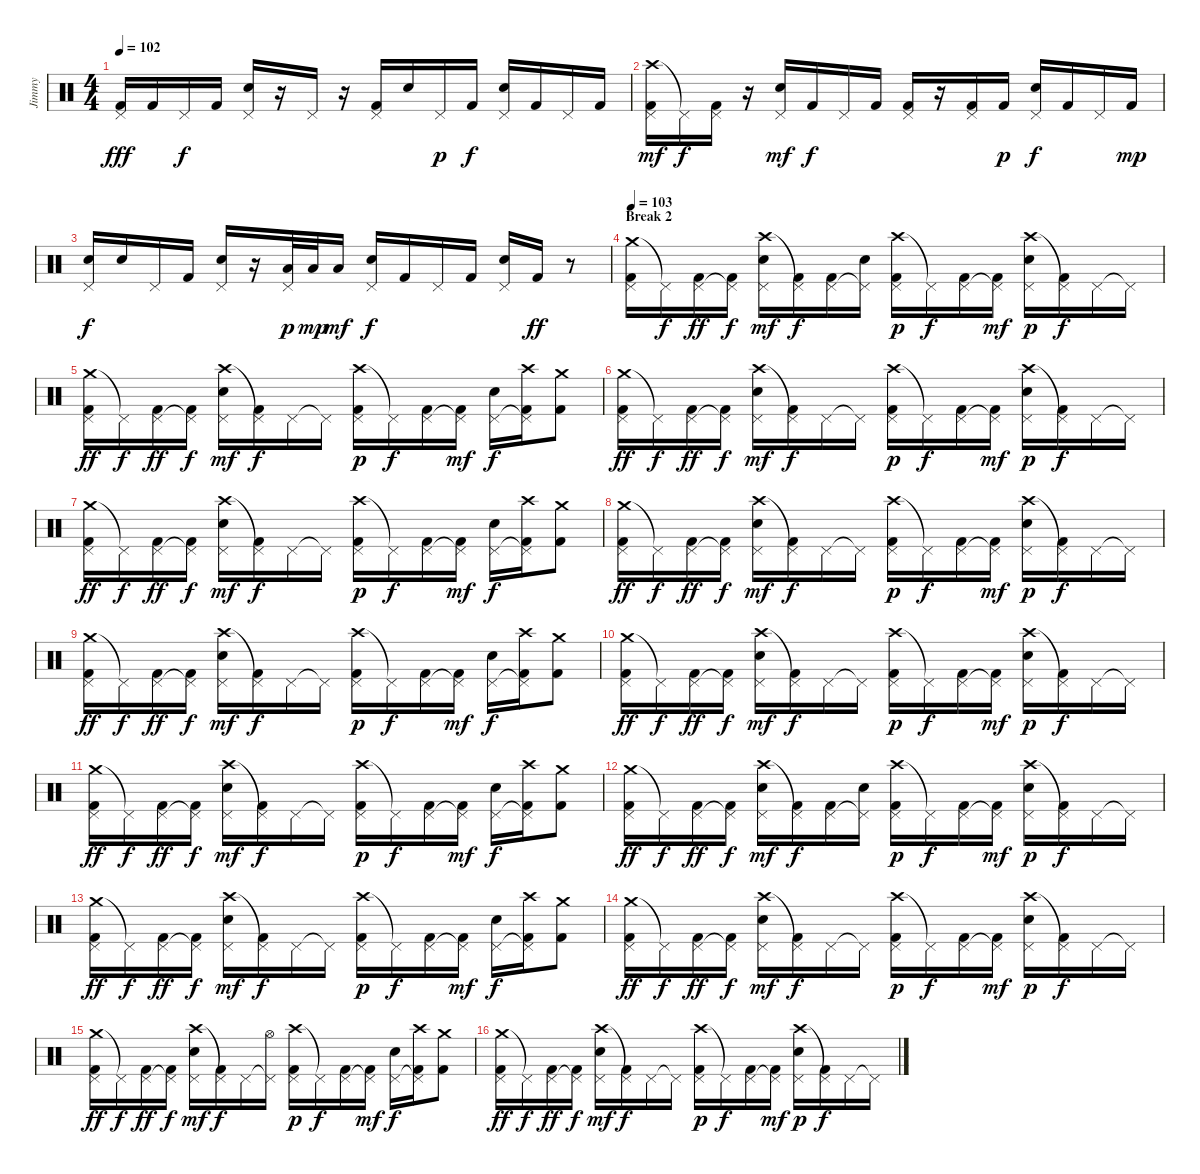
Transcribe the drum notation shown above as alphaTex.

\track ("Jimmy" "Jimmy") {instrument percussion}
\staff {score}
\articulation defaults
\ts (4 4)
\tempo 102
\clef neutral
\ks c
("Pedal Hi-Hat (hit)" "Kick (hit) 2").16{dy fff} "Kick (hit) 2".16 "Pedal Hi-Hat (hit)".16{dy f} "Kick (hit) 2".16 ("Pedal Hi-Hat (hit)" "Electric Snare (hit)").16 r.16 "Pedal Hi-Hat (hit)".16 r.16 ("Pedal Hi-Hat (hit)" "Kick (hit) 2").16 "Electric Snare (hit)".16 "Pedal Hi-Hat (hit)".16{dy p} "Kick (hit) 2".16{dy f} ("Pedal Hi-Hat (hit)" "Electric Snare (hit)").16 "Kick (hit) 2".16 "Pedal Hi-Hat (hit)".16 "Kick (hit) 2".16 |
("Crash high (hit)" "Pedal Hi-Hat (hit)" "Kick (hit) 2").16{dy mf} "Pedal Hi-Hat (hit)"{t}.16{dy f} ("Pedal Hi-Hat (hit)" "Kick (hit) 2").16 r.16 ("Pedal Hi-Hat (hit)" "Electric Snare (hit)").16{dy mf} "Kick (hit) 2".16{dy f} "Pedal Hi-Hat (hit)".16 "Kick (hit) 2".16 ("Pedal Hi-Hat (hit)" "Kick (hit) 2").16 r.16 ("Pedal Hi-Hat (hit)" "Kick (hit) 2").16 "Kick (hit) 2".16{dy p} ("Pedal Hi-Hat (hit)" "Electric Snare (hit)").16{dy f} "Kick (hit) 2".16 "Pedal Hi-Hat (hit)".16 "Kick (hit) 2".16{dy mp} |
("Pedal Hi-Hat (hit)" "Electric Snare (hit)").16{dy f} "Electric Snare (hit)".16 "Pedal Hi-Hat (hit)".16 "Kick (hit) 2".16 ("Pedal Hi-Hat (hit)" "Electric Snare (hit)").16 r.16 ("Pedal Hi-Hat (hit)" "Low Tom (hit)").32{dy p} "Low Tom (hit)".32{dy mp} "Low Tom (hit)".16{dy mf} ("Pedal Hi-Hat (hit)" "Electric Snare (hit)").16{dy f} "Kick (hit) 2".16 "Pedal Hi-Hat (hit)".16 "Kick (hit) 2".16 ("Pedal Hi-Hat (hit)" "Electric Snare (hit)").16 "Kick (hit) 2".16{dy ff} r.8 |
\section ("" "Break 2")
\tempo 103
("Crash medium (hit)" "Pedal Hi-Hat (hit)" "Kick (hit) 2").16{volume 16} "Pedal Hi-Hat (hit)"{t}.16{dy f} ("Pedal Hi-Hat (hit)" "Kick (hit) 2").16{dy ff} ("Pedal Hi-Hat (hit)"{t} "Kick (hit) 2").16{dy f} ("Crash high (hit)" "Pedal Hi-Hat (hit)" "Electric Snare (hit)").16{dy mf} ("Pedal Hi-Hat (hit)"{t} "Kick (hit) 2").16{dy f} ("Pedal Hi-Hat (hit)" "Kick (hit) 2").16 ("Pedal Hi-Hat (hit)"{t} "Electric Snare (hit)").16 ("Crash high (hit)" "Pedal Hi-Hat (hit)" "Kick (hit) 2").16{dy p} "Pedal Hi-Hat (hit)"{t}.16{dy f} ("Pedal Hi-Hat (hit)" "Kick (hit) 2").16 ("Pedal Hi-Hat (hit)"{t} "Kick (hit) 2").16{dy mf} ("Crash high (hit)" "Pedal Hi-Hat (hit)" "Electric Snare (hit)").16{dy p} ("Pedal Hi-Hat (hit)"{t} "Kick (hit) 2").16{dy f} "Pedal Hi-Hat (hit)".16 "Pedal Hi-Hat (hit)"{t}.16 |
("Crash medium (hit)" "Pedal Hi-Hat (hit)" "Kick (hit) 2").16{dy ff} "Pedal Hi-Hat (hit)"{t}.16{dy f} ("Pedal Hi-Hat (hit)" "Kick (hit) 2").16{dy ff} ("Pedal Hi-Hat (hit)"{t} "Kick (hit) 2").16{dy f} ("Crash high (hit)" "Pedal Hi-Hat (hit)" "Electric Snare (hit)").16{dy mf} ("Pedal Hi-Hat (hit)"{t} "Kick (hit) 2").16{dy f} "Pedal Hi-Hat (hit)".16 "Pedal Hi-Hat (hit)"{t}.16 ("Crash high (hit)" "Pedal Hi-Hat (hit)" "Kick (hit) 2").16{dy p} "Pedal Hi-Hat (hit)"{t}.16{dy f} ("Pedal Hi-Hat (hit)" "Kick (hit) 2").16 ("Pedal Hi-Hat (hit)"{t} "Kick (hit) 2").16{dy mf} ("Pedal Hi-Hat (hit)" "Electric Snare (hit)").16{dy f} ("Pedal Hi-Hat (hit)"{t} "Crash high (hit)" "Kick (hit) 2").16 ("Crash medium (hit)" "Kick (hit) 2").8 |
("Crash medium (hit)" "Pedal Hi-Hat (hit)" "Kick (hit) 2").16{dy ff} "Pedal Hi-Hat (hit)"{t}.16{dy f} ("Pedal Hi-Hat (hit)" "Kick (hit) 2").16{dy ff} ("Pedal Hi-Hat (hit)"{t} "Kick (hit) 2").16{dy f} ("Crash high (hit)" "Pedal Hi-Hat (hit)" "Electric Snare (hit)").16{dy mf} ("Pedal Hi-Hat (hit)"{t} "Kick (hit) 2").16{dy f} "Pedal Hi-Hat (hit)".16 "Pedal Hi-Hat (hit)"{t}.16 ("Crash high (hit)" "Pedal Hi-Hat (hit)" "Kick (hit) 2").16{dy p} "Pedal Hi-Hat (hit)"{t}.16{dy f} ("Pedal Hi-Hat (hit)" "Kick (hit) 2").16 ("Pedal Hi-Hat (hit)"{t} "Kick (hit) 2").16{dy mf} ("Crash high (hit)" "Pedal Hi-Hat (hit)" "Electric Snare (hit)").16{dy p} ("Pedal Hi-Hat (hit)"{t} "Kick (hit) 2").16{dy f} "Pedal Hi-Hat (hit)".16 "Pedal Hi-Hat (hit)"{t}.16 |
("Crash medium (hit)" "Pedal Hi-Hat (hit)" "Kick (hit) 2").16{dy ff} "Pedal Hi-Hat (hit)"{t}.16{dy f} ("Pedal Hi-Hat (hit)" "Kick (hit) 2").16{dy ff} ("Pedal Hi-Hat (hit)"{t} "Kick (hit) 2").16{dy f} ("Crash high (hit)" "Pedal Hi-Hat (hit)" "Electric Snare (hit)").16{dy mf} ("Pedal Hi-Hat (hit)"{t} "Kick (hit) 2").16{dy f} "Pedal Hi-Hat (hit)".16 "Pedal Hi-Hat (hit)"{t}.16 ("Crash high (hit)" "Pedal Hi-Hat (hit)" "Kick (hit) 2").16{dy p} "Pedal Hi-Hat (hit)"{t}.16{dy f} ("Pedal Hi-Hat (hit)" "Kick (hit) 2").16 ("Pedal Hi-Hat (hit)"{t} "Kick (hit) 2").16{dy mf} ("Pedal Hi-Hat (hit)" "Electric Snare (hit)").16{dy f} ("Pedal Hi-Hat (hit)"{t} "Crash high (hit)" "Kick (hit) 2").16 ("Crash medium (hit)" "Kick (hit) 2").8 |
("Crash medium (hit)" "Pedal Hi-Hat (hit)" "Kick (hit) 2").16{dy ff} "Pedal Hi-Hat (hit)"{t}.16{dy f} ("Pedal Hi-Hat (hit)" "Kick (hit) 2").16{dy ff} ("Pedal Hi-Hat (hit)"{t} "Kick (hit) 2").16{dy f} ("Crash high (hit)" "Pedal Hi-Hat (hit)" "Electric Snare (hit)").16{dy mf} ("Pedal Hi-Hat (hit)"{t} "Kick (hit) 2").16{dy f} "Pedal Hi-Hat (hit)".16 "Pedal Hi-Hat (hit)"{t}.16 ("Crash high (hit)" "Pedal Hi-Hat (hit)" "Kick (hit) 2").16{dy p} "Pedal Hi-Hat (hit)"{t}.16{dy f} ("Pedal Hi-Hat (hit)" "Kick (hit) 2").16 ("Pedal Hi-Hat (hit)"{t} "Kick (hit) 2").16{dy mf} ("Crash high (hit)" "Pedal Hi-Hat (hit)" "Electric Snare (hit)").16{dy p} ("Pedal Hi-Hat (hit)"{t} "Kick (hit) 2").16{dy f} "Pedal Hi-Hat (hit)".16 "Pedal Hi-Hat (hit)"{t}.16 |
("Crash medium (hit)" "Pedal Hi-Hat (hit)" "Kick (hit) 2").16{dy ff} "Pedal Hi-Hat (hit)"{t}.16{dy f} ("Pedal Hi-Hat (hit)" "Kick (hit) 2").16{dy ff} ("Pedal Hi-Hat (hit)"{t} "Kick (hit) 2").16{dy f} ("Crash high (hit)" "Pedal Hi-Hat (hit)" "Electric Snare (hit)").16{dy mf} ("Pedal Hi-Hat (hit)"{t} "Kick (hit) 2").16{dy f} "Pedal Hi-Hat (hit)".16 "Pedal Hi-Hat (hit)"{t}.16 ("Crash high (hit)" "Pedal Hi-Hat (hit)" "Kick (hit) 2").16{dy p} "Pedal Hi-Hat (hit)"{t}.16{dy f} ("Pedal Hi-Hat (hit)" "Kick (hit) 2").16 ("Pedal Hi-Hat (hit)"{t} "Kick (hit) 2").16{dy mf} ("Pedal Hi-Hat (hit)" "Electric Snare (hit)").16{dy f} ("Pedal Hi-Hat (hit)"{t} "Crash high (hit)" "Kick (hit) 2").16 ("Crash medium (hit)" "Kick (hit) 2").8 |
("Crash medium (hit)" "Pedal Hi-Hat (hit)" "Kick (hit) 2").16{dy ff} "Pedal Hi-Hat (hit)"{t}.16{dy f} ("Pedal Hi-Hat (hit)" "Kick (hit) 2").16{dy ff} ("Pedal Hi-Hat (hit)"{t} "Kick (hit) 2").16{dy f} ("Crash high (hit)" "Pedal Hi-Hat (hit)" "Electric Snare (hit)").16{dy mf} ("Pedal Hi-Hat (hit)"{t} "Kick (hit) 2").16{dy f} "Pedal Hi-Hat (hit)".16 "Pedal Hi-Hat (hit)"{t}.16 ("Crash high (hit)" "Pedal Hi-Hat (hit)" "Kick (hit) 2").16{dy p} "Pedal Hi-Hat (hit)"{t}.16{dy f} ("Pedal Hi-Hat (hit)" "Kick (hit) 2").16 ("Pedal Hi-Hat (hit)"{t} "Kick (hit) 2").16{dy mf} ("Crash high (hit)" "Pedal Hi-Hat (hit)" "Electric Snare (hit)").16{dy p} ("Pedal Hi-Hat (hit)"{t} "Kick (hit) 2").16{dy f} "Pedal Hi-Hat (hit)".16 "Pedal Hi-Hat (hit)"{t}.16 |
("Crash medium (hit)" "Pedal Hi-Hat (hit)" "Kick (hit) 2").16{dy ff} "Pedal Hi-Hat (hit)"{t}.16{dy f} ("Pedal Hi-Hat (hit)" "Kick (hit) 2").16{dy ff} ("Pedal Hi-Hat (hit)"{t} "Kick (hit) 2").16{dy f} ("Crash high (hit)" "Pedal Hi-Hat (hit)" "Electric Snare (hit)").16{dy mf} ("Pedal Hi-Hat (hit)"{t} "Kick (hit) 2").16{dy f} "Pedal Hi-Hat (hit)".16 "Pedal Hi-Hat (hit)"{t}.16 ("Crash high (hit)" "Pedal Hi-Hat (hit)" "Kick (hit) 2").16{dy p} "Pedal Hi-Hat (hit)"{t}.16{dy f} ("Pedal Hi-Hat (hit)" "Kick (hit) 2").16 ("Pedal Hi-Hat (hit)"{t} "Kick (hit) 2").16{dy mf} ("Pedal Hi-Hat (hit)" "Electric Snare (hit)").16{dy f} ("Pedal Hi-Hat (hit)"{t} "Crash high (hit)" "Kick (hit) 2").16 ("Crash medium (hit)" "Kick (hit) 2").8 |
("Crash medium (hit)" "Pedal Hi-Hat (hit)" "Kick (hit) 2").16{dy ff} "Pedal Hi-Hat (hit)"{t}.16{dy f} ("Pedal Hi-Hat (hit)" "Kick (hit) 2").16{dy ff} ("Pedal Hi-Hat (hit)"{t} "Kick (hit) 2").16{dy f} ("Crash high (hit)" "Pedal Hi-Hat (hit)" "Electric Snare (hit)").16{dy mf} ("Pedal Hi-Hat (hit)"{t} "Kick (hit) 2").16{dy f} ("Pedal Hi-Hat (hit)" "Kick (hit) 2").16 ("Pedal Hi-Hat (hit)"{t} "Electric Snare (hit)").16 ("Crash high (hit)" "Pedal Hi-Hat (hit)" "Kick (hit) 2").16{dy p} "Pedal Hi-Hat (hit)"{t}.16{dy f} ("Pedal Hi-Hat (hit)" "Kick (hit) 2").16 ("Pedal Hi-Hat (hit)"{t} "Kick (hit) 2").16{dy mf} ("Crash high (hit)" "Pedal Hi-Hat (hit)" "Electric Snare (hit)").16{dy p} ("Pedal Hi-Hat (hit)"{t} "Kick (hit) 2").16{dy f} "Pedal Hi-Hat (hit)".16 "Pedal Hi-Hat (hit)"{t}.16 |
("Crash medium (hit)" "Pedal Hi-Hat (hit)" "Kick (hit) 2").16{dy ff} "Pedal Hi-Hat (hit)"{t}.16{dy f} ("Pedal Hi-Hat (hit)" "Kick (hit) 2").16{dy ff} ("Pedal Hi-Hat (hit)"{t} "Kick (hit) 2").16{dy f} ("Crash high (hit)" "Pedal Hi-Hat (hit)" "Electric Snare (hit)").16{dy mf} ("Pedal Hi-Hat (hit)"{t} "Kick (hit) 2").16{dy f} "Pedal Hi-Hat (hit)".16 "Pedal Hi-Hat (hit)"{t}.16 ("Crash high (hit)" "Pedal Hi-Hat (hit)" "Kick (hit) 2").16{dy p} "Pedal Hi-Hat (hit)"{t}.16{dy f} ("Pedal Hi-Hat (hit)" "Kick (hit) 2").16 ("Pedal Hi-Hat (hit)"{t} "Kick (hit) 2").16{dy mf} ("Pedal Hi-Hat (hit)" "Electric Snare (hit)").16{dy f} ("Pedal Hi-Hat (hit)"{t} "Crash high (hit)" "Kick (hit) 2").16 ("Crash medium (hit)" "Kick (hit) 2").8 |
("Crash medium (hit)" "Pedal Hi-Hat (hit)" "Kick (hit) 2").16{dy ff} "Pedal Hi-Hat (hit)"{t}.16{dy f} ("Pedal Hi-Hat (hit)" "Kick (hit) 2").16{dy ff} ("Pedal Hi-Hat (hit)"{t} "Kick (hit) 2").16{dy f} ("Crash high (hit)" "Pedal Hi-Hat (hit)" "Electric Snare (hit)").16{dy mf} ("Pedal Hi-Hat (hit)"{t} "Kick (hit) 2").16{dy f} "Pedal Hi-Hat (hit)".16 "Pedal Hi-Hat (hit)"{t}.16 ("Crash high (hit)" "Pedal Hi-Hat (hit)" "Kick (hit) 2").16{dy p} "Pedal Hi-Hat (hit)"{t}.16{dy f} ("Pedal Hi-Hat (hit)" "Kick (hit) 2").16 ("Pedal Hi-Hat (hit)"{t} "Kick (hit) 2").16{dy mf} ("Crash high (hit)" "Pedal Hi-Hat (hit)" "Electric Snare (hit)").16{dy p} ("Pedal Hi-Hat (hit)"{t} "Kick (hit) 2").16{dy f} "Pedal Hi-Hat (hit)".16 "Pedal Hi-Hat (hit)"{t}.16 |
("Crash medium (hit)" "Pedal Hi-Hat (hit)" "Kick (hit) 2").16{dy ff} "Pedal Hi-Hat (hit)"{t}.16{dy f} ("Pedal Hi-Hat (hit)" "Kick (hit) 2").16{dy ff} ("Pedal Hi-Hat (hit)"{t} "Kick (hit) 2").16{dy f} ("Crash high (hit)" "Pedal Hi-Hat (hit)" "Electric Snare (hit)").16{dy mf} ("Pedal Hi-Hat (hit)"{t} "Kick (hit) 2").16{dy f} "Pedal Hi-Hat (hit)".16 ("Pedal Hi-Hat (hit)"{t} "Hi-Hat (open)").16 ("Crash high (hit)" "Pedal Hi-Hat (hit)" "Kick (hit) 2").16{dy p} "Pedal Hi-Hat (hit)"{t}.16{dy f} ("Pedal Hi-Hat (hit)" "Kick (hit) 2").16 ("Pedal Hi-Hat (hit)"{t} "Kick (hit) 2").16{dy mf} ("Pedal Hi-Hat (hit)" "Electric Snare (hit)").16{dy f} ("Pedal Hi-Hat (hit)"{t} "Crash high (hit)" "Kick (hit) 2").16 ("Crash medium (hit)" "Kick (hit) 2").8 |
("Crash medium (hit)" "Pedal Hi-Hat (hit)" "Kick (hit) 2").16{dy ff} "Pedal Hi-Hat (hit)"{t}.16{dy f} ("Pedal Hi-Hat (hit)" "Kick (hit) 2").16{dy ff} ("Pedal Hi-Hat (hit)"{t} "Kick (hit) 2").16{dy f} ("Crash high (hit)" "Pedal Hi-Hat (hit)" "Electric Snare (hit)").16{dy mf} ("Pedal Hi-Hat (hit)"{t} "Kick (hit) 2").16{dy f} "Pedal Hi-Hat (hit)".16 "Pedal Hi-Hat (hit)"{t}.16 ("Crash high (hit)" "Pedal Hi-Hat (hit)" "Kick (hit) 2").16{dy p} "Pedal Hi-Hat (hit)"{t}.16{dy f} ("Pedal Hi-Hat (hit)" "Kick (hit) 2").16 ("Pedal Hi-Hat (hit)"{t} "Kick (hit) 2").16{dy mf} ("Crash high (hit)" "Pedal Hi-Hat (hit)" "Electric Snare (hit)").16{dy p} ("Pedal Hi-Hat (hit)"{t} "Kick (hit) 2").16{dy f} "Pedal Hi-Hat (hit)".16 "Pedal Hi-Hat (hit)"{t}.16
